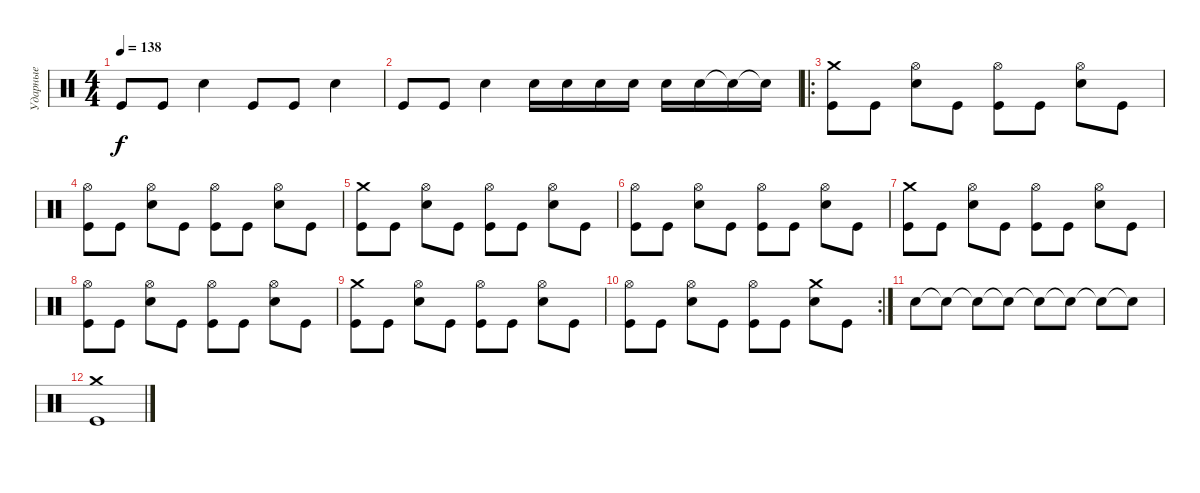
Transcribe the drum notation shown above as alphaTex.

\track ("Ударные" "Ударные") {instrument percussion}
\staff {score}
\articulation defaults
\ts (4 4)
\tempo 138
\clef neutral
\ks c "Kick (hit)".8{dy f} "Kick (hit)".8 "Snare (hit) 2".4 "Kick (hit)".8 "Kick (hit)".8 "Snare (hit) 2".4
|
"Kick (hit)".8 "Kick (hit)".8 "Snare (hit) 2".4 "Snare (hit) 2".16 "Snare (hit) 2".16 "Snare (hit) 2".16 "Snare (hit) 2".16 "Snare (hit) 2".16 "Snare (hit) 2".16 "Snare (hit)"{t}.16 "Snare (hit)"{t}.16 |
\ro
("Crash medium (hit)" "Kick (hit)").8 "Kick (hit)".8 ("Hi-Hat (open)" "Snare (hit) 2").8 "Kick (hit)".8 ("Hi-Hat (open)" "Kick (hit)").8 "Kick (hit)".8 ("Hi-Hat (open)" "Snare (hit) 2").8 "Kick (hit)".8 |
("Hi-Hat (open)" "Kick (hit)").8 "Kick (hit)".8 ("Hi-Hat (open)" "Snare (hit) 2").8 "Kick (hit)".8 ("Hi-Hat (open)" "Kick (hit)").8 "Kick (hit)".8 ("Hi-Hat (open)" "Snare (hit) 2").8 "Kick (hit)".8 |
("Crash medium (hit)" "Kick (hit)").8 "Kick (hit)".8 ("Hi-Hat (open)" "Snare (hit) 2").8 "Kick (hit)".8 ("Hi-Hat (open)" "Kick (hit)").8 "Kick (hit)".8 ("Hi-Hat (open)" "Snare (hit) 2").8 "Kick (hit)".8 |
("Hi-Hat (open)" "Kick (hit)").8 "Kick (hit)".8 ("Hi-Hat (open)" "Snare (hit) 2").8 "Kick (hit)".8 ("Hi-Hat (open)" "Kick (hit)").8 "Kick (hit)".8 ("Hi-Hat (open)" "Snare (hit) 2").8 "Kick (hit)".8 |
("Crash medium (hit)" "Kick (hit)").8 "Kick (hit)".8 ("Hi-Hat (open)" "Snare (hit) 2").8 "Kick (hit)".8 ("Hi-Hat (open)" "Kick (hit)").8 "Kick (hit)".8 ("Hi-Hat (open)" "Snare (hit) 2").8 "Kick (hit)".8 |
("Hi-Hat (open)" "Kick (hit)").8 "Kick (hit)".8 ("Hi-Hat (open)" "Snare (hit) 2").8 "Kick (hit)".8 ("Hi-Hat (open)" "Kick (hit)").8 "Kick (hit)".8 ("Hi-Hat (open)" "Snare (hit) 2").8 "Kick (hit)".8 |
("Crash medium (hit)" "Kick (hit)").8 "Kick (hit)".8 ("Hi-Hat (open)" "Snare (hit) 2").8 "Kick (hit)".8 ("Hi-Hat (open)" "Kick (hit)").8 "Kick (hit)".8 ("Hi-Hat (open)" "Snare (hit) 2").8 "Kick (hit)".8 |
\rc 2
("Hi-Hat (open)" "Kick (hit)").8 "Kick (hit)".8 ("Hi-Hat (open)" "Snare (hit) 2").8 "Kick (hit)".8 ("Hi-Hat (open)" "Kick (hit)").8 "Kick (hit)".8 ("Crash medium (hit)" "Snare (hit) 2").8 "Kick (hit)".8 |
"Snare (hit) 2".8 "Snare (hit)"{t}.8 "Snare (hit)"{t}.8 "Snare (hit)"{t}.8 "Snare (hit)"{t}.8 "Snare (hit) 2"{t}.8 "Snare (hit)"{t}.8 "Snare (hit)"{t}.8 |
("Crash medium (hit)" "Kick (hit)").1
